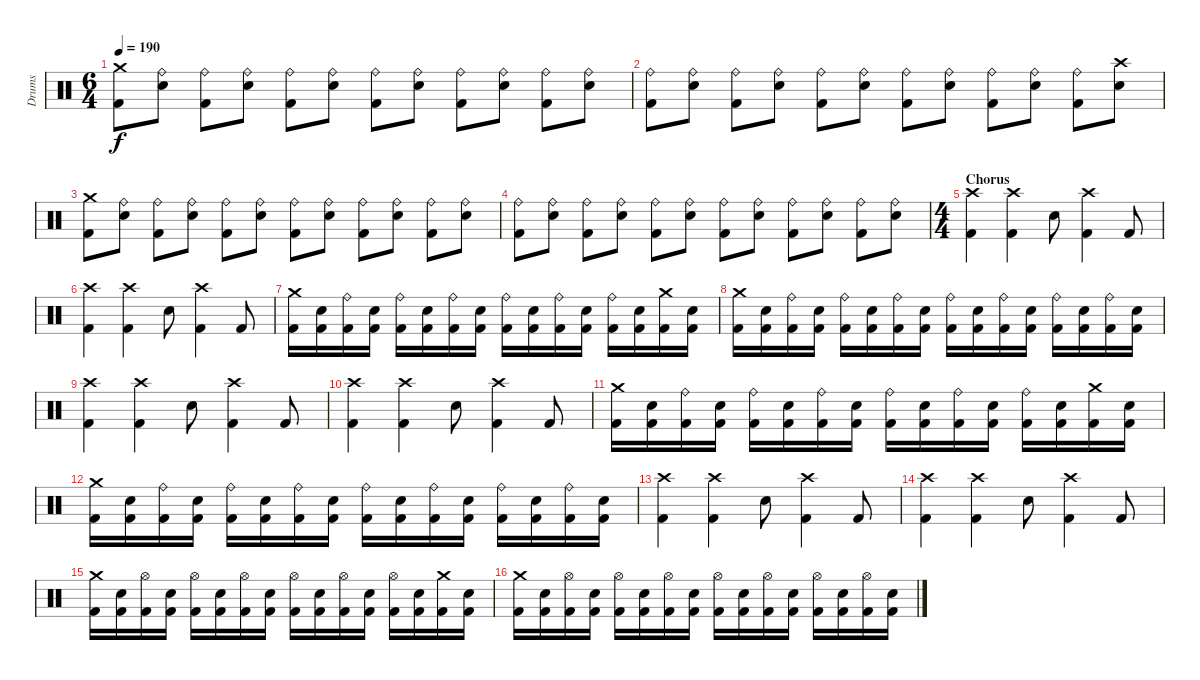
\track ("Drums" "Drums") {instrument percussion}
\staff {score}
\articulation defaults
\ts (6 4)
\tempo 190
\clef neutral
\ks c
("Crash medium (hit)" "Kick (hit) 2").8{dy f} ("Ride (bell)" "Snare (hit) 2").8 ("Ride (bell)" "Kick (hit) 2").8 ("Ride (bell)" "Snare (hit) 2").8 ("Ride (bell)" "Kick (hit) 2").8 ("Ride (bell)" "Snare (hit) 2").8 ("Ride (bell)" "Kick (hit) 2").8 ("Ride (bell)" "Snare (hit) 2").8 ("Ride (bell)" "Kick (hit) 2").8 ("Ride (bell)" "Snare (hit) 2").8 ("Ride (bell)" "Kick (hit) 2").8 ("Ride (bell)" "Snare (hit) 2").8 |
("Ride (bell)" "Kick (hit) 2").8 ("Ride (bell)" "Snare (hit) 2").8 ("Ride (bell)" "Kick (hit) 2").8 ("Ride (bell)" "Snare (hit) 2").8 ("Ride (bell)" "Kick (hit) 2").8 ("Ride (bell)" "Snare (hit) 2").8 ("Ride (bell)" "Kick (hit) 2").8 ("Ride (bell)" "Snare (hit) 2").8 ("Ride (bell)" "Kick (hit) 2").8 ("Ride (bell)" "Snare (hit) 2").8 ("Ride (bell)" "Kick (hit) 2").8 ("Crash high (hit)" "Snare (hit) 2").8 |
("Crash medium (hit)" "Kick (hit) 2").8 ("Ride (bell)" "Snare (hit) 2").8 ("Ride (bell)" "Kick (hit) 2").8 ("Ride (bell)" "Snare (hit) 2").8 ("Ride (bell)" "Kick (hit) 2").8 ("Ride (bell)" "Snare (hit) 2").8 ("Ride (bell)" "Kick (hit) 2").8 ("Ride (bell)" "Snare (hit) 2").8 ("Ride (bell)" "Kick (hit) 2").8 ("Ride (bell)" "Snare (hit) 2").8 ("Ride (bell)" "Kick (hit) 2").8 ("Ride (bell)" "Snare (hit) 2").8 |
("Ride (bell)" "Kick (hit) 2").8 ("Ride (bell)" "Snare (hit) 2").8 ("Ride (bell)" "Kick (hit) 2").8 ("Ride (bell)" "Snare (hit) 2").8 ("Ride (bell)" "Kick (hit) 2").8 ("Ride (bell)" "Snare (hit) 2").8 ("Ride (bell)" "Kick (hit) 2").8 ("Ride (bell)" "Snare (hit) 2").8 ("Ride (bell)" "Kick (hit) 2").8 ("Ride (bell)" "Snare (hit) 2").8 ("Ride (bell)" "Kick (hit) 2").8 ("Ride (bell)" "Snare (hit) 2").8 |
\ts (4 4)
\section ("" "Chorus")
("Crash high (hit)" "Kick (hit) 2").4 ("Crash high (hit)" "Kick (hit) 2").4 "Snare (hit) 2".8 ("Crash high (hit)" "Kick (hit) 2").4 "Kick (hit) 2".8 |
("Crash high (hit)" "Kick (hit) 2").4 ("Crash high (hit)" "Kick (hit) 2").4 "Snare (hit) 2".8 ("Crash high (hit)" "Kick (hit) 2").4 "Kick (hit) 2".8 |
("Crash medium (hit)" "Kick (hit) 2").16 ("Snare (hit) 2" "Kick (hit) 2").16 ("Ride (bell)" "Kick (hit) 2").16 ("Snare (hit) 2" "Kick (hit) 2").16 ("Ride (bell)" "Kick (hit) 2").16 ("Snare (hit) 2" "Kick (hit) 2").16 ("Ride (bell)" "Kick (hit) 2").16 ("Snare (hit) 2" "Kick (hit) 2").16 ("Ride (bell)" "Kick (hit) 2").16 ("Snare (hit) 2" "Kick (hit) 2").16 ("Ride (bell)" "Kick (hit) 2").16 ("Snare (hit) 2" "Kick (hit) 2").16 ("Ride (bell)" "Kick (hit) 2").16 ("Snare (hit) 2" "Kick (hit) 2").16 ("Crash medium (hit)" "Kick (hit) 2").16 ("Snare (hit) 2" "Kick (hit) 2").16 |
("Crash medium (hit)" "Kick (hit) 2").16 ("Snare (hit) 2" "Kick (hit) 2").16 ("Ride (bell)" "Kick (hit) 2").16 ("Snare (hit) 2" "Kick (hit) 2").16 ("Ride (bell)" "Kick (hit) 2").16 ("Snare (hit) 2" "Kick (hit) 2").16 ("Ride (bell)" "Kick (hit) 2").16 ("Snare (hit) 2" "Kick (hit) 2").16 ("Ride (bell)" "Kick (hit) 2").16 ("Snare (hit) 2" "Kick (hit) 2").16 ("Ride (bell)" "Kick (hit) 2").16 ("Snare (hit) 2" "Kick (hit) 2").16 ("Ride (bell)" "Kick (hit) 2").16 ("Snare (hit) 2" "Kick (hit) 2").16 ("Ride (bell)" "Kick (hit) 2").16 ("Snare (hit) 2" "Kick (hit) 2").16 |
("Crash high (hit)" "Kick (hit) 2").4 ("Crash high (hit)" "Kick (hit) 2").4 "Snare (hit) 2".8 ("Crash high (hit)" "Kick (hit) 2").4 "Kick (hit) 2".8 |
("Crash high (hit)" "Kick (hit) 2").4 ("Crash high (hit)" "Kick (hit) 2").4 "Snare (hit) 2".8 ("Crash high (hit)" "Kick (hit) 2").4 "Kick (hit) 2".8 |
("Crash medium (hit)" "Kick (hit) 2").16 ("Snare (hit) 2" "Kick (hit) 2").16 ("Ride (bell)" "Kick (hit) 2").16 ("Snare (hit) 2" "Kick (hit) 2").16 ("Ride (bell)" "Kick (hit) 2").16 ("Snare (hit) 2" "Kick (hit) 2").16 ("Ride (bell)" "Kick (hit) 2").16 ("Snare (hit) 2" "Kick (hit) 2").16 ("Ride (bell)" "Kick (hit) 2").16 ("Snare (hit) 2" "Kick (hit) 2").16 ("Ride (bell)" "Kick (hit) 2").16 ("Snare (hit) 2" "Kick (hit) 2").16 ("Ride (bell)" "Kick (hit) 2").16 ("Snare (hit) 2" "Kick (hit) 2").16 ("Crash medium (hit)" "Kick (hit) 2").16 ("Snare (hit) 2" "Kick (hit) 2").16 |
("Crash medium (hit)" "Kick (hit) 2").16 ("Snare (hit) 2" "Kick (hit) 2").16 ("Ride (bell)" "Kick (hit) 2").16 ("Snare (hit) 2" "Kick (hit) 2").16 ("Ride (bell)" "Kick (hit) 2").16 ("Snare (hit) 2" "Kick (hit) 2").16 ("Ride (bell)" "Kick (hit) 2").16 ("Snare (hit) 2" "Kick (hit) 2").16 ("Ride (bell)" "Kick (hit) 2").16 ("Snare (hit) 2" "Kick (hit) 2").16 ("Ride (bell)" "Kick (hit) 2").16 ("Snare (hit) 2" "Kick (hit) 2").16 ("Ride (bell)" "Kick (hit) 2").16 ("Snare (hit) 2" "Kick (hit) 2").16 ("Ride (bell)" "Kick (hit) 2").16 ("Snare (hit) 2" "Kick (hit) 2").16 |
("Crash high (hit)" "Kick (hit) 2").4 ("Crash high (hit)" "Kick (hit) 2").4 "Snare (hit) 2".8 ("Crash high (hit)" "Kick (hit) 2").4 "Kick (hit) 2".8 |
("Crash high (hit)" "Kick (hit) 2").4 ("Crash high (hit)" "Kick (hit) 2").4 "Snare (hit) 2".8 ("Crash high (hit)" "Kick (hit) 2").4 "Kick (hit) 2".8 |
("Crash medium (hit)" "Kick (hit) 2").16 ("Snare (hit) 2" "Kick (hit) 2").16 ("Hi-Hat (open)" "Kick (hit) 2").16 ("Snare (hit) 2" "Kick (hit) 2").16 ("Hi-Hat (open)" "Kick (hit) 2").16 ("Snare (hit) 2" "Kick (hit) 2").16 ("Hi-Hat (open)" "Kick (hit) 2").16 ("Snare (hit) 2" "Kick (hit) 2").16 ("Hi-Hat (open)" "Kick (hit) 2").16 ("Snare (hit) 2" "Kick (hit) 2").16 ("Hi-Hat (open)" "Kick (hit) 2").16 ("Snare (hit) 2" "Kick (hit) 2").16 ("Hi-Hat (open)" "Kick (hit) 2").16 ("Snare (hit) 2" "Kick (hit) 2").16 ("Crash medium (hit)" "Kick (hit) 2").16 ("Snare (hit) 2" "Kick (hit) 2").16 |
("Crash medium (hit)" "Kick (hit) 2").16 ("Snare (hit) 2" "Kick (hit) 2").16 ("Hi-Hat (open)" "Kick (hit) 2").16 ("Snare (hit) 2" "Kick (hit) 2").16 ("Hi-Hat (open)" "Kick (hit) 2").16 ("Snare (hit) 2" "Kick (hit) 2").16 ("Hi-Hat (open)" "Kick (hit) 2").16 ("Snare (hit) 2" "Kick (hit) 2").16 ("Hi-Hat (open)" "Kick (hit) 2").16 ("Snare (hit) 2" "Kick (hit) 2").16 ("Hi-Hat (open)" "Kick (hit) 2").16 ("Snare (hit) 2" "Kick (hit) 2").16 ("Hi-Hat (open)" "Kick (hit) 2").16 ("Snare (hit) 2" "Kick (hit) 2").16 ("Hi-Hat (open)" "Kick (hit) 2").16 ("Snare (hit) 2" "Kick (hit) 2").16
